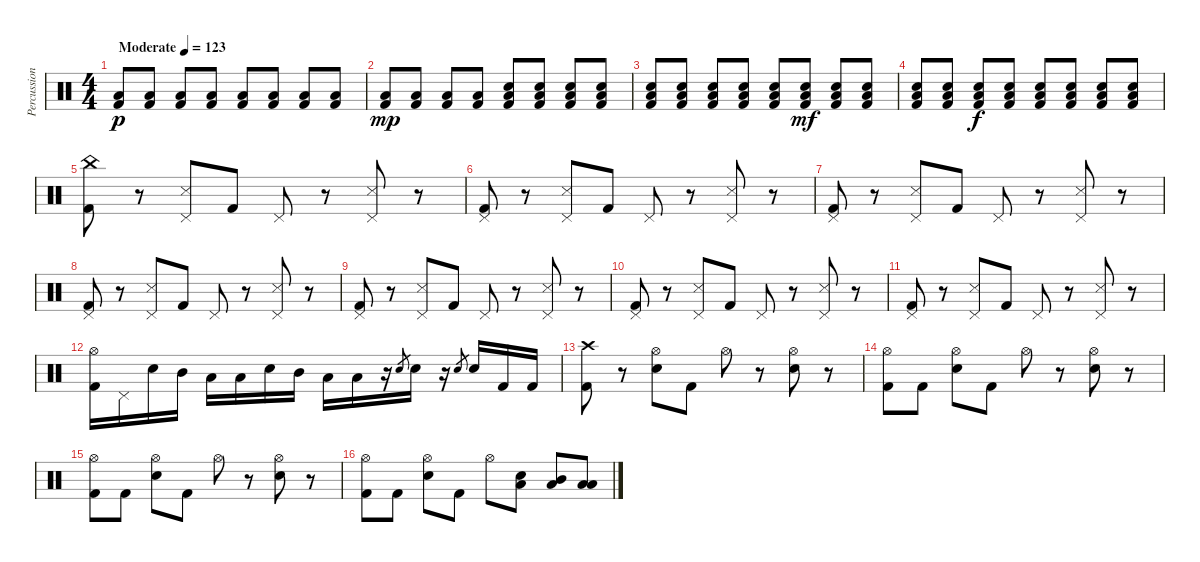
\track ("Percussioni" "Percussion") {instrument percussion}
\staff {score}
\articulation defaults
\ts (4 4)
\tempo (123 "Moderate")
\clef neutral
\ks c
("Kick (hit) 2" "Low Floor Tom (hit)").8{dy p} ("Kick (hit) 2" "Low Floor Tom (hit)").8 ("Kick (hit) 2" "Low Floor Tom (hit)").8 ("Kick (hit) 2" "Low Floor Tom (hit)").8 ("Kick (hit) 2" "Low Floor Tom (hit)").8 ("Kick (hit) 2" "Low Floor Tom (hit)").8 ("Kick (hit) 2" "Low Floor Tom (hit)").8 ("Kick (hit) 2" "Low Floor Tom (hit)").8 |
("Kick (hit) 2" "Low Floor Tom (hit)").8{dy mp} ("Kick (hit) 2" "Low Floor Tom (hit)").8 ("Kick (hit) 2" "Low Floor Tom (hit)").8 ("Kick (hit) 2" "Low Floor Tom (hit)").8 ("Electric Snare (hit)" "Kick (hit) 2" "Low Floor Tom (hit)").8 ("Electric Snare (hit)" "Kick (hit) 2" "Low Floor Tom (hit)").8 ("Electric Snare (hit)" "Kick (hit) 2" "Low Floor Tom (hit)").8 ("Electric Snare (hit)" "Kick (hit) 2" "Low Floor Tom (hit)").8 |
("Electric Snare (hit)" "Kick (hit) 2" "Low Floor Tom (hit)").8 ("Electric Snare (hit)" "Kick (hit) 2" "Low Floor Tom (hit)").8 ("Electric Snare (hit)" "Kick (hit) 2" "Low Floor Tom (hit)").8 ("Electric Snare (hit)" "Kick (hit) 2" "Low Floor Tom (hit)").8 ("Electric Snare (hit)" "Kick (hit) 2" "Low Floor Tom (hit)").8 ("Electric Snare (hit)" "Kick (hit) 2" "Low Floor Tom (hit)").8{dy mf} ("Electric Snare (hit)" "Kick (hit) 2" "Low Floor Tom (hit)").8 ("Electric Snare (hit)" "Kick (hit) 2" "Low Floor Tom (hit)").8 |
("Electric Snare (hit)" "Kick (hit) 2" "Low Floor Tom (hit)").8 ("Electric Snare (hit)" "Kick (hit) 2" "Low Floor Tom (hit)").8 ("Electric Snare (hit)" "Kick (hit) 2" "Low Floor Tom (hit)").8{dy f} ("Electric Snare (hit)" "Kick (hit) 2" "Low Floor Tom (hit)").8 ("Electric Snare (hit)" "Kick (hit) 2" "Low Floor Tom (hit)").8 ("Electric Snare (hit)" "Kick (hit) 2" "Low Floor Tom (hit)").8 ("Electric Snare (hit)" "Kick (hit) 2" "Low Floor Tom (hit)").8 ("Electric Snare (hit)" "Kick (hit) 2" "Low Floor Tom (hit)").8 |
("China (hit)" "Kick (hit) 2").8 r.8 ("Pedal Hi-Hat (hit)" "Snare (side stick) 3").8 "Kick (hit) 2".8 "Pedal Hi-Hat (hit)".8 r.8 ("Pedal Hi-Hat (hit)" "Snare (side stick) 3").8 r.8 |
("Pedal Hi-Hat (hit)" "Kick (hit) 2").8 r.8 ("Pedal Hi-Hat (hit)" "Snare (side stick) 3").8 "Kick (hit) 2".8 "Pedal Hi-Hat (hit)".8 r.8 ("Pedal Hi-Hat (hit)" "Snare (side stick) 3").8 r.8 |
("Pedal Hi-Hat (hit)" "Kick (hit) 2").8 r.8 ("Pedal Hi-Hat (hit)" "Snare (side stick) 3").8 "Kick (hit) 2".8 "Pedal Hi-Hat (hit)".8 r.8 ("Pedal Hi-Hat (hit)" "Snare (side stick) 3").8 r.8 |
("Pedal Hi-Hat (hit)" "Kick (hit) 2").8 r.8 ("Pedal Hi-Hat (hit)" "Snare (side stick) 3").8 "Kick (hit) 2".8 "Pedal Hi-Hat (hit)".8 r.8 ("Pedal Hi-Hat (hit)" "Snare (side stick) 3").8 r.8 |
("Pedal Hi-Hat (hit)" "Kick (hit) 2").8 r.8 ("Pedal Hi-Hat (hit)" "Snare (side stick) 3").8 "Kick (hit) 2".8 "Pedal Hi-Hat (hit)".8 r.8 ("Pedal Hi-Hat (hit)" "Snare (side stick) 3").8 r.8 |
("Pedal Hi-Hat (hit)" "Kick (hit) 2").8 r.8 ("Pedal Hi-Hat (hit)" "Snare (side stick) 3").8 "Kick (hit) 2".8 "Pedal Hi-Hat (hit)".8 r.8 ("Pedal Hi-Hat (hit)" "Snare (side stick) 3").8 r.8 |
("Pedal Hi-Hat (hit)" "Kick (hit) 2").8 r.8 ("Pedal Hi-Hat (hit)" "Snare (side stick) 3").8 "Kick (hit) 2".8 "Pedal Hi-Hat (hit)".8 r.8 ("Pedal Hi-Hat (hit)" "Snare (side stick) 3").8 r.8 |
("Hi-Hat (open)" "Kick (hit) 2").16 "Pedal Hi-Hat (hit)".16 "Electric Snare (hit)".16 "Mid Tom (hit)".16 "Low Tom (hit)".16 "Low Floor Tom (hit)".16 "Electric Snare (hit)".16 "Mid Tom (hit)".16 "Low Tom (hit)".16 "Low Floor Tom (hit)".16 r.16 "Electric Snare (hit)".8{gr} "Electric Snare (hit)".16 r.16 "Electric Snare (hit)".8{gr} "Electric Snare (hit)".16 "Kick (hit) 2".16 "Kick (hit) 2".16 |
("Crash high (hit)" "Kick (hit) 2").8 r.8 ("Hi-Hat (open)" "Electric Snare (hit)").8 "Kick (hit) 2".8 "Hi-Hat (open)".8 r.8 ("Hi-Hat (open)" "Electric Snare (hit)").8 r.8 |
("Hi-Hat (open)" "Kick (hit) 2").8 "Kick (hit) 2".8 ("Hi-Hat (open)" "Electric Snare (hit)").8 "Kick (hit) 2".8 "Hi-Hat (open)".8 r.8 ("Hi-Hat (open)" "Electric Snare (hit)").8 r.8 |
("Hi-Hat (open)" "Kick (hit) 2").8 "Kick (hit) 2".8 ("Hi-Hat (open)" "Electric Snare (hit)").8 "Kick (hit) 2".8 "Hi-Hat (open)".8 r.8 ("Hi-Hat (open)" "Electric Snare (hit)").8 r.8 |
("Hi-Hat (open)" "Kick (hit) 2").8 "Kick (hit) 2".8 ("Hi-Hat (open)" "Electric Snare (hit)").8 "Kick (hit) 2".8 "Hi-Hat (open)".8 ("Low Floor Tom (hit)" "Electric Snare (hit)").8 ("Mid Tom (hit)" "Low Tom (hit)").8 ("Low Tom (hit)" "Low Floor Tom (hit)").8
